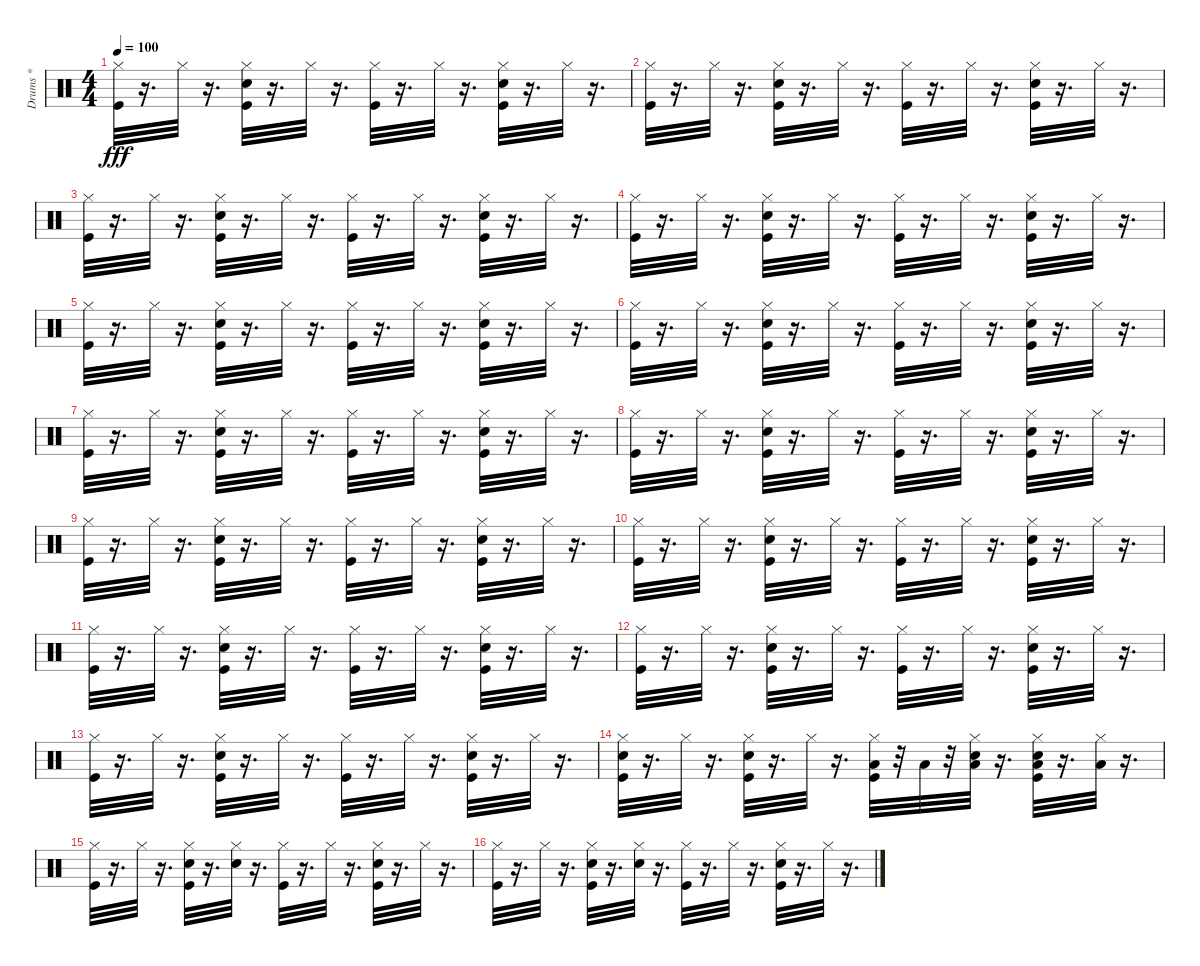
\track ("Drums *" "Drums *") {instrument percussion}
\staff {score}
\articulation defaults
\ts (4 4)
\tempo 100
\clef neutral
\ks c
("Kick (hit)" "Hi-Hat (closed)").32{dy fff} r.16{d} "Hi-Hat (closed)".32 r.16{d} ("Electric Snare (hit)" "Kick (hit)" "Hi-Hat (closed)").32 r.16{d} "Hi-Hat (closed)".32 r.16{d} ("Kick (hit)" "Hi-Hat (closed)").32 r.16{d} "Hi-Hat (closed)".32 r.16{d} ("Kick (hit)" "Hi-Hat (closed)" "Electric Snare (hit)").32 r.16{d} "Hi-Hat (closed)".32 r.16{d} |
("Kick (hit)" "Hi-Hat (closed)").32 r.16{d} "Hi-Hat (closed)".32 r.16{d} ("Electric Snare (hit)" "Kick (hit)" "Hi-Hat (closed)").32 r.16{d} "Hi-Hat (closed)".32 r.16{d} ("Hi-Hat (closed)" "Kick (hit)").32 r.16{d} "Hi-Hat (closed)".32 r.16{d} ("Hi-Hat (closed)" "Kick (hit)" "Electric Snare (hit)").32 r.16{d} "Hi-Hat (closed)".32 r.16{d} |
("Kick (hit)" "Hi-Hat (closed)").32 r.16{d} "Hi-Hat (closed)".32 r.16{d} ("Kick (hit)" "Electric Snare (hit)" "Hi-Hat (closed)").32 r.16{d} "Hi-Hat (closed)".32 r.16{d} ("Kick (hit)" "Hi-Hat (closed)").32 r.16{d} "Hi-Hat (closed)".32 r.16{d} ("Hi-Hat (closed)" "Electric Snare (hit)" "Kick (hit)").32 r.16{d} "Hi-Hat (closed)".32 r.16{d} |
("Hi-Hat (closed)" "Kick (hit)").32 r.16{d} "Hi-Hat (closed)".32 r.16{d} ("Kick (hit)" "Electric Snare (hit)" "Hi-Hat (closed)").32 r.16{d} "Hi-Hat (closed)".32 r.16{d} ("Hi-Hat (closed)" "Kick (hit)").32 r.16{d} "Hi-Hat (closed)".32 r.16{d} ("Electric Snare (hit)" "Hi-Hat (closed)" "Kick (hit)").32 r.16{d} "Hi-Hat (closed)".32 r.16{d} |
("Kick (hit)" "Hi-Hat (closed)").32 r.16{d} "Hi-Hat (closed)".32 r.16{d} ("Kick (hit)" "Electric Snare (hit)" "Hi-Hat (closed)").32 r.16{d} "Hi-Hat (closed)".32 r.16{d} ("Kick (hit)" "Hi-Hat (closed)").32 r.16{d} "Hi-Hat (closed)".32 r.16{d} ("Electric Snare (hit)" "Kick (hit)" "Hi-Hat (closed)").32 r.16{d} "Hi-Hat (closed)".32 r.16{d} |
("Hi-Hat (closed)" "Kick (hit)").32 r.16{d} "Hi-Hat (closed)".32 r.16{d} ("Kick (hit)" "Electric Snare (hit)" "Hi-Hat (closed)").32 r.16{d} "Hi-Hat (closed)".32 r.16{d} ("Hi-Hat (closed)" "Kick (hit)").32 r.16{d} "Hi-Hat (closed)".32 r.16{d} ("Kick (hit)" "Electric Snare (hit)" "Hi-Hat (closed)").32 r.16{d} "Hi-Hat (closed)".32 r.16{d} |
("Kick (hit)" "Hi-Hat (closed)").32 r.16{d} "Hi-Hat (closed)".32 r.16{d} ("Kick (hit)" "Hi-Hat (closed)" "Electric Snare (hit)").32 r.16{d} "Hi-Hat (closed)".32 r.16{d} ("Hi-Hat (closed)" "Kick (hit)").32 r.16{d} "Hi-Hat (closed)".32 r.16{d} ("Electric Snare (hit)" "Kick (hit)" "Hi-Hat (closed)").32 r.16{d} "Hi-Hat (closed)".32 r.16{d} |
("Hi-Hat (closed)" "Kick (hit)").32 r.16{d} "Hi-Hat (closed)".32 r.16{d} ("Electric Snare (hit)" "Kick (hit)" "Hi-Hat (closed)").32 r.16{d} "Hi-Hat (closed)".32 r.16{d} ("Hi-Hat (closed)" "Kick (hit)").32 r.16{d} "Hi-Hat (closed)".32 r.16{d} ("Electric Snare (hit)" "Kick (hit)" "Hi-Hat (closed)").32 r.16{d} "Hi-Hat (closed)".32 r.16{d} |
("Hi-Hat (closed)" "Kick (hit)").32 r.16{d} "Hi-Hat (closed)".32 r.16{d} ("Kick (hit)" "Electric Snare (hit)" "Hi-Hat (closed)").32 r.16{d} "Hi-Hat (closed)".32 r.16{d} ("Kick (hit)" "Hi-Hat (closed)").32 r.16{d} "Hi-Hat (closed)".32 r.16{d} ("Electric Snare (hit)" "Hi-Hat (closed)" "Kick (hit)").32 r.16{d} "Hi-Hat (closed)".32 r.16{d} |
("Hi-Hat (closed)" "Kick (hit)").32 r.16{d} "Hi-Hat (closed)".32 r.16{d} ("Electric Snare (hit)" "Hi-Hat (closed)" "Kick (hit)").32 r.16{d} "Hi-Hat (closed)".32 r.16{d} ("Hi-Hat (closed)" "Kick (hit)").32 r.16{d} "Hi-Hat (closed)".32 r.16{d} ("Electric Snare (hit)" "Kick (hit)" "Hi-Hat (closed)").32 r.16{d} "Hi-Hat (closed)".32 r.16{d} |
("Hi-Hat (closed)" "Kick (hit)").32 r.16{d} "Hi-Hat (closed)".32 r.16{d} ("Kick (hit)" "Electric Snare (hit)" "Hi-Hat (closed)").32 r.16{d} "Hi-Hat (closed)".32 r.16{d} ("Kick (hit)" "Hi-Hat (closed)").32 r.16{d} "Hi-Hat (closed)".32 r.16{d} ("Kick (hit)" "Hi-Hat (closed)" "Electric Snare (hit)").32 r.16{d} "Hi-Hat (closed)".32 r.16{d} |
("Kick (hit)" "Hi-Hat (closed)").32 r.16{d} "Hi-Hat (closed)".32 r.16{d} ("Kick (hit)" "Electric Snare (hit)" "Hi-Hat (closed)").32 r.16{d} "Hi-Hat (closed)".32 r.16{d} ("Kick (hit)" "Hi-Hat (closed)").32 r.16{d} "Hi-Hat (closed)".32 r.16{d} ("Kick (hit)" "Electric Snare (hit)" "Hi-Hat (closed)").32 r.16{d} "Hi-Hat (closed)".32 r.16{d} |
("Kick (hit)" "Hi-Hat (closed)").32 r.16{d} "Hi-Hat (closed)".32 r.16{d} ("Kick (hit)" "Electric Snare (hit)" "Hi-Hat (closed)").32 r.16{d} "Hi-Hat (closed)".32 r.16{d} ("Hi-Hat (closed)" "Kick (hit)").32 r.16{d} "Hi-Hat (closed)".32 r.16{d} ("Electric Snare (hit)" "Kick (hit)" "Hi-Hat (closed)").32 r.16{d} "Hi-Hat (closed)".32 r.16{d} |
("Kick (hit)" "Hi-Hat (closed)" "Snare (hit) 2").32 r.16{d} "Hi-Hat (closed)".32 r.16{d} ("Kick (hit)" "Hi-Hat (closed)" "Snare (hit) 2").32 r.16{d} "Hi-Hat (closed)".32 r.16{d} ("Kick (hit)" "Low Tom (hit)" "Hi-Hat (closed)").32 r.32 "Low Tom (hit)".32 r.32 ("Low Tom (hit)" "Snare (hit) 2" "Hi-Hat (closed)").32 r.16{d} ("Hi-Hat (closed)" "Low Tom (hit)" "Kick (hit)" "Snare (hit) 2").32 r.16{d} ("Low Floor Tom (hit)" "Hi-Hat (closed)").32 r.16{d} |
("Kick (hit)" "Hi-Hat (closed)").32 r.16{d} "Hi-Hat (closed)".32 r.16{d} ("Hi-Hat (closed)" "Kick (hit)" "Snare (hit) 2").32 r.16{d} ("Hi-Hat (closed)" "Snare (hit) 2").32 r.16{d} ("Hi-Hat (closed)" "Kick (hit)").32 r.16{d} "Hi-Hat (closed)".32 r.16{d} ("Kick (hit)" "Snare (hit) 2" "Hi-Hat (closed)").32 r.16{d} "Hi-Hat (closed)".32 r.16{d} |
("Hi-Hat (closed)" "Kick (hit)").32 r.16{d} "Hi-Hat (closed)".32 r.16{d} ("Hi-Hat (closed)" "Snare (hit) 2" "Kick (hit)").32 r.16{d} ("Snare (hit) 2" "Hi-Hat (closed)").32 r.16{d} ("Kick (hit)" "Hi-Hat (closed)").32 r.16{d} "Hi-Hat (closed)".32 r.16{d} ("Snare (hit) 2" "Kick (hit)" "Hi-Hat (closed)").32 r.16{d} "Hi-Hat (closed)".32 r.16{d}
